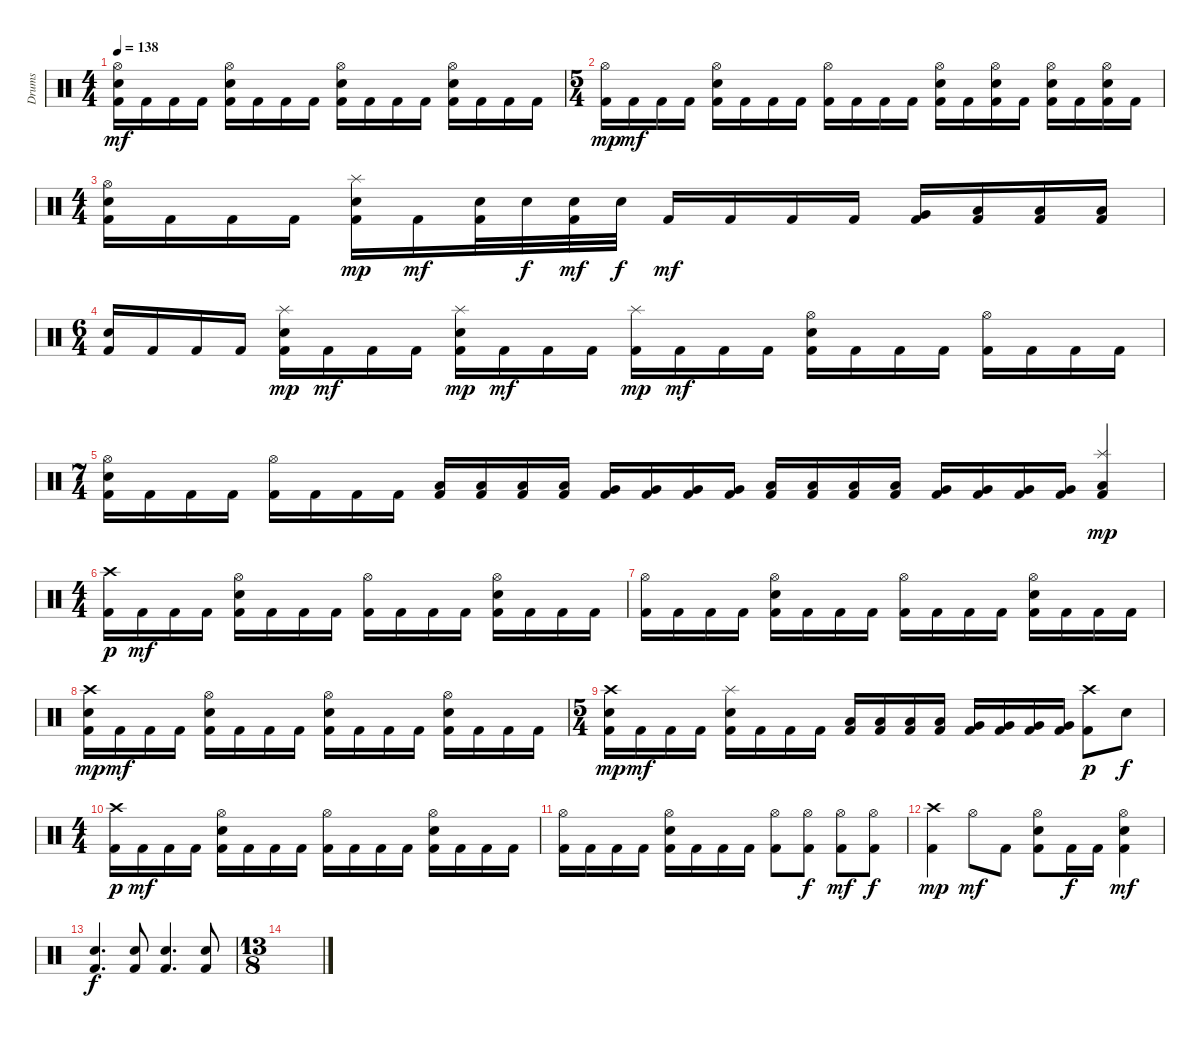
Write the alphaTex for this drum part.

\track ("Drums" "Drums") {instrument percussion}
\staff {score}
\articulation defaults
\ts (4 4)
\tempo 138
\clef neutral
\ks c
("Kick (hit) 2" "Electric Snare (hit)" "Hi-Hat (open)").16{dy mf} "Kick (hit) 2".16 "Kick (hit) 2".16 "Kick (hit) 2".16 ("Kick (hit) 2" "Electric Snare (hit)" "Hi-Hat (open)").16 "Kick (hit) 2".16 "Kick (hit) 2".16 "Kick (hit) 2".16 ("Kick (hit) 2" "Electric Snare (hit)" "Hi-Hat (open)").16 "Kick (hit) 2".16 "Kick (hit) 2".16 "Kick (hit) 2".16 ("Kick (hit) 2" "Electric Snare (hit)" "Hi-Hat (open)").16 "Kick (hit) 2".16 "Kick (hit) 2".16 "Kick (hit) 2".16 |
\ts (5 4)
("Kick (hit) 2" "Hi-Hat (open)").16{dy mp} "Kick (hit) 2".16{dy mf} "Kick (hit) 2".16 "Kick (hit) 2".16 ("Kick (hit) 2" "Electric Snare (hit)" "Hi-Hat (open)").16 "Kick (hit) 2".16 "Kick (hit) 2".16 "Kick (hit) 2".16 ("Kick (hit) 2" "Hi-Hat (open)").16 "Kick (hit) 2".16 "Kick (hit) 2".16 "Kick (hit) 2".16 ("Kick (hit) 2" "Electric Snare (hit)" "Hi-Hat (open)").16 "Kick (hit) 2".16 ("Kick (hit) 2" "Electric Snare (hit)" "Hi-Hat (open)").16 "Kick (hit) 2".16 ("Kick (hit) 2" "Electric Snare (hit)" "Hi-Hat (open)").16 "Kick (hit) 2".16 ("Kick (hit) 2" "Electric Snare (hit)" "Hi-Hat (open)").16 "Kick (hit) 2".16 |
\ts (4 4)
("Kick (hit) 2" "Electric Snare (hit)" "Hi-Hat (open)").16 "Kick (hit) 2".16 "Kick (hit) 2".16 "Kick (hit) 2".16 ("Kick (hit) 2" "Electric Snare (hit)" "Splash (hit)").16{dy mp} "Kick (hit) 2".16{dy mf} ("Kick (hit) 2" "Electric Snare (hit)").32 "Electric Snare (hit)".32{dy f} ("Kick (hit) 2" "Electric Snare (hit)").32{dy mf} "Electric Snare (hit)".32{dy f} "Kick (hit) 2".16{dy mf} "Kick (hit) 2".16 "Kick (hit) 2".16 "Kick (hit) 2".16 ("Kick (hit) 2" "Very Low Tom (hit)").16 ("Kick (hit) 2" "Low Floor Tom (hit)").16 ("Kick (hit) 2" "Low Floor Tom (hit)").16 ("Kick (hit) 2" "Low Floor Tom (hit)").16 |
\ts (6 4)
("Kick (hit) 2" "Electric Snare (hit)").16 "Kick (hit) 2".16 "Kick (hit) 2".16 "Kick (hit) 2".16 ("Kick (hit) 2" "Electric Snare (hit)" "Splash (hit)").16{dy mp} "Kick (hit) 2".16{dy mf} "Kick (hit) 2".16 "Kick (hit) 2".16 ("Kick (hit) 2" "Electric Snare (hit)" "Splash (hit)").16{dy mp} "Kick (hit) 2".16{dy mf} "Kick (hit) 2".16 "Kick (hit) 2".16 ("Kick (hit) 2" "Splash (hit)").16{dy mp} "Kick (hit) 2".16{dy mf} "Kick (hit) 2".16 "Kick (hit) 2".16 ("Kick (hit) 2" "Electric Snare (hit)" "Hi-Hat (open)").16 "Kick (hit) 2".16 "Kick (hit) 2".16 "Kick (hit) 2".16 ("Kick (hit) 2" "Hi-Hat (open)").16 "Kick (hit) 2".16 "Kick (hit) 2".16 "Kick (hit) 2".16 |
\ts (7 4)
("Kick (hit) 2" "Electric Snare (hit)" "Hi-Hat (open)").16 "Kick (hit) 2".16 "Kick (hit) 2".16 "Kick (hit) 2".16 ("Kick (hit) 2" "Hi-Hat (open)").16 "Kick (hit) 2".16 "Kick (hit) 2".16 "Kick (hit) 2".16 ("Kick (hit) 2" "Low Tom (hit)").16 ("Kick (hit) 2" "Low Tom (hit)").16 ("Kick (hit) 2" "Low Tom (hit)").16 ("Kick (hit) 2" "Low Tom (hit)").16 ("Kick (hit) 2" "Very Low Tom (hit)").16 ("Kick (hit) 2" "Very Low Tom (hit)").16 ("Kick (hit) 2" "Very Low Tom (hit)").16 ("Kick (hit) 2" "Very Low Tom (hit)").16 ("Kick (hit) 2" "Low Tom (hit)").16 ("Kick (hit) 2" "Low Tom (hit)").16 ("Kick (hit) 2" "Low Tom (hit)").16 ("Kick (hit) 2" "Low Tom (hit)").16 ("Kick (hit) 2" "Very Low Tom (hit)").16 ("Kick (hit) 2" "Very Low Tom (hit)").16 ("Kick (hit) 2" "Very Low Tom (hit)").16 ("Kick (hit) 2" "Very Low Tom (hit)").16 ("Kick (hit) 2" "Low Tom (hit)" "Splash (hit)").4{dy mp} |
\ts (4 4)
("Kick (hit) 2" "Crash high (hit)").16{dy p} "Kick (hit) 2".16{dy mf} "Kick (hit) 2".16 "Kick (hit) 2".16 ("Kick (hit) 2" "Electric Snare (hit)" "Hi-Hat (open)").16 "Kick (hit) 2".16 "Kick (hit) 2".16 "Kick (hit) 2".16 ("Kick (hit) 2" "Hi-Hat (open)").16 "Kick (hit) 2".16 "Kick (hit) 2".16 "Kick (hit) 2".16 ("Kick (hit) 2" "Electric Snare (hit)" "Hi-Hat (open)").16 "Kick (hit) 2".16 "Kick (hit) 2".16 "Kick (hit) 2".16 |
("Kick (hit) 2" "Hi-Hat (open)").16 "Kick (hit) 2".16 "Kick (hit) 2".16 "Kick (hit) 2".16 ("Kick (hit) 2" "Electric Snare (hit)" "Hi-Hat (open)").16 "Kick (hit) 2".16 "Kick (hit) 2".16 "Kick (hit) 2".16 ("Kick (hit) 2" "Hi-Hat (open)").16 "Kick (hit) 2".16 "Kick (hit) 2".16 "Kick (hit) 2".16 ("Kick (hit) 2" "Electric Snare (hit)" "Hi-Hat (open)").16 "Kick (hit) 2".16 "Kick (hit) 2".16 "Kick (hit) 2".16 |
("Kick (hit) 2" "Electric Snare (hit)" "Crash high (hit)").16{dy mp} "Kick (hit) 2".16{dy mf} "Kick (hit) 2".16 "Kick (hit) 2".16 ("Kick (hit) 2" "Electric Snare (hit)" "Hi-Hat (open)").16 "Kick (hit) 2".16 "Kick (hit) 2".16 "Kick (hit) 2".16 ("Kick (hit) 2" "Electric Snare (hit)" "Hi-Hat (open)").16 "Kick (hit) 2".16 "Kick (hit) 2".16 "Kick (hit) 2".16 ("Kick (hit) 2" "Electric Snare (hit)" "Hi-Hat (open)").16 "Kick (hit) 2".16 "Kick (hit) 2".16 "Kick (hit) 2".16 |
\ts (5 4)
("Kick (hit) 2" "Electric Snare (hit)" "Crash high (hit)").16{dy mp} "Kick (hit) 2".16{dy mf} "Kick (hit) 2".16 "Kick (hit) 2".16 ("Kick (hit) 2" "Electric Snare (hit)" "Splash (hit)").16 "Kick (hit) 2".16 "Kick (hit) 2".16 "Kick (hit) 2".16 ("Kick (hit) 2" "Low Tom (hit)").16 ("Kick (hit) 2" "Low Tom (hit)").16 ("Kick (hit) 2" "Low Tom (hit)").16 ("Kick (hit) 2" "Low Tom (hit)").16 ("Kick (hit) 2" "Very Low Tom (hit)").16 ("Kick (hit) 2" "Very Low Tom (hit)").16 ("Kick (hit) 2" "Very Low Tom (hit)").16 ("Kick (hit) 2" "Very Low Tom (hit)").16 ("Kick (hit) 2" "Crash high (hit)").8{dy p} "Electric Snare (hit)".8{dy f} |
\ts (4 4)
("Kick (hit) 2" "Crash high (hit)").16{dy p} "Kick (hit) 2".16{dy mf} "Kick (hit) 2".16 "Kick (hit) 2".16 ("Kick (hit) 2" "Electric Snare (hit)" "Hi-Hat (open)").16 "Kick (hit) 2".16 "Kick (hit) 2".16 "Kick (hit) 2".16 ("Kick (hit) 2" "Hi-Hat (open)").16 "Kick (hit) 2".16 "Kick (hit) 2".16 "Kick (hit) 2".16 ("Kick (hit) 2" "Electric Snare (hit)" "Hi-Hat (open)").16 "Kick (hit) 2".16 "Kick (hit) 2".16 "Kick (hit) 2".16 |
("Kick (hit) 2" "Hi-Hat (open)").16 "Kick (hit) 2".16 "Kick (hit) 2".16 "Kick (hit) 2".16 ("Kick (hit) 2" "Electric Snare (hit)" "Hi-Hat (open)").16 "Kick (hit) 2".16 "Kick (hit) 2".16 "Kick (hit) 2".16 ("Kick (hit) 2" "Hi-Hat (open)").8 ("Kick (hit) 2" "Hi-Hat (open)").8{dy f} ("Kick (hit) 2" "Hi-Hat (open)").8{dy mf} ("Kick (hit) 2" "Hi-Hat (open)").8{dy f} |
("Kick (hit) 2" "Crash high (hit)").4{dy mp} "Hi-Hat (open)".8{dy mf} "Kick (hit) 2".8 ("Kick (hit) 2" "Electric Snare (hit)" "Hi-Hat (open)").8 "Kick (hit) 2".16{dy f} "Kick (hit) 2".16 ("Kick (hit) 2" "Electric Snare (hit)" "Hi-Hat (open)").4{dy mf} |
("Kick (hit) 2" "Electric Snare (hit)").4{d dy f} ("Kick (hit) 2" "Electric Snare (hit)").8 ("Kick (hit) 2" "Electric Snare (hit)").4{d} ("Kick (hit) 2" "Electric Snare (hit)").8 |
\ts (13 8)
